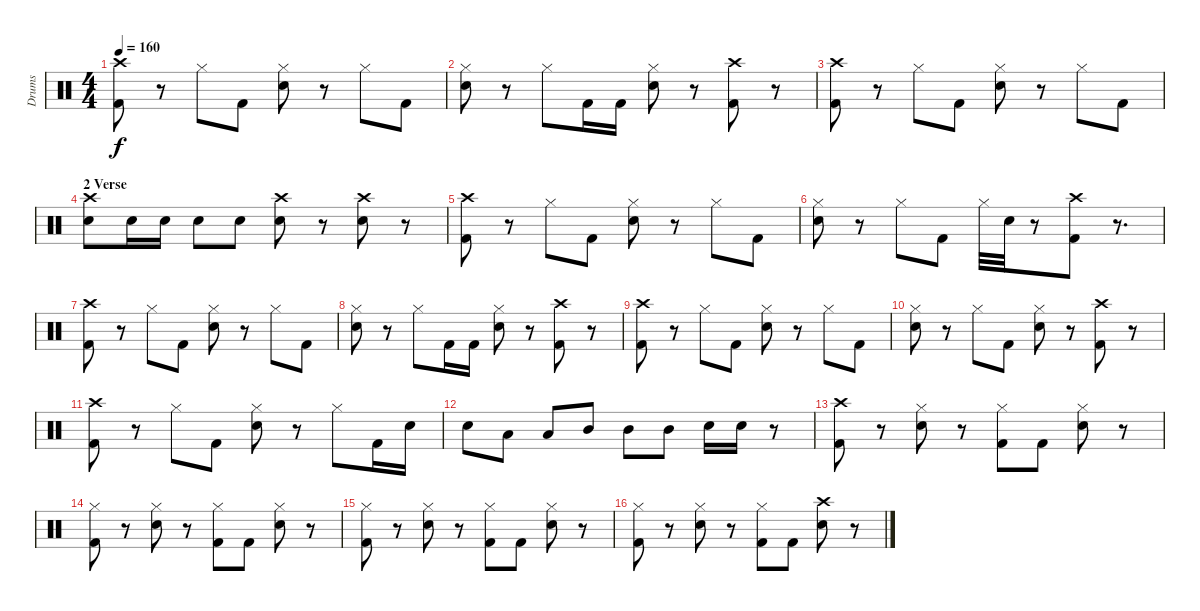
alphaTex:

\track ("Drums" "Drums") {instrument percussion}
\staff {score}
\articulation defaults
\ts (4 4)
\tempo 160
\clef neutral
\ks c
("Kick (hit) 2" "Crash high (hit)").8{dy f} r.8 "Hi-Hat (closed)".8 "Kick (hit) 2".8 ("Snare (hit) 2" "Hi-Hat (closed)").8 r.8 "Hi-Hat (closed)".8 "Kick (hit) 2".8 |
("Snare (hit) 2" "Hi-Hat (closed)").8 r.8 "Hi-Hat (closed)".8 "Kick (hit) 2".16 "Kick (hit) 2".16 ("Snare (hit) 2" "Hi-Hat (closed)").8 r.8 ("Crash high (hit)" "Kick (hit) 2").8 r.8 |
("Kick (hit) 2" "Crash high (hit)").8 r.8 "Hi-Hat (closed)".8 "Kick (hit) 2".8 ("Snare (hit) 2" "Hi-Hat (closed)").8 r.8 "Hi-Hat (closed)".8 "Kick (hit) 2".8 |
\section ("" "2 Verse")
("Snare (hit) 2" "Crash high (hit)").8 "Snare (hit) 2".16 "Snare (hit) 2".16 "Snare (hit) 2".8 "Snare (hit) 2".8 ("Crash high (hit)" "Snare (hit) 2").8 r.8 ("Crash high (hit)" "Snare (hit) 2").8 r.8 |
("Kick (hit) 2" "Crash high (hit)").8 r.8 "Hi-Hat (closed)".8 "Kick (hit) 2".8 ("Snare (hit) 2" "Hi-Hat (closed)").8 r.8 "Hi-Hat (closed)".8 "Kick (hit) 2".8 |
("Hi-Hat (closed)" "Snare (hit) 2").8 r.8 "Hi-Hat (closed)".8 "Kick (hit) 2".8 "Hi-Hat (closed)".32 "Snare (hit) 2".32 r.8 ("Crash high (hit)" "Kick (hit) 2").8 r.8{d} |
("Kick (hit) 2" "Crash high (hit)").8 r.8 "Hi-Hat (closed)".8 "Kick (hit) 2".8 ("Snare (hit) 2" "Hi-Hat (closed)").8 r.8 "Hi-Hat (closed)".8 "Kick (hit) 2".8 |
("Snare (hit) 2" "Hi-Hat (closed)").8 r.8 "Hi-Hat (closed)".8 "Kick (hit) 2".16 "Kick (hit) 2".16 ("Snare (hit) 2" "Hi-Hat (closed)").8 r.8 ("Crash high (hit)" "Kick (hit) 2").8 r.8 |
("Kick (hit) 2" "Crash high (hit)").8 r.8 "Hi-Hat (closed)".8 "Kick (hit) 2".8 ("Snare (hit) 2" "Hi-Hat (closed)").8 r.8 "Hi-Hat (closed)".8 "Kick (hit) 2".8 |
("Snare (hit) 2" "Hi-Hat (closed)").8 r.8 "Hi-Hat (closed)".8 "Kick (hit) 2".8 ("Snare (hit) 2" "Hi-Hat (closed)").8 r.8 ("Crash high (hit)" "Kick (hit) 2").8 r.8 |
("Kick (hit) 2" "Crash high (hit)").8 r.8 "Hi-Hat (closed)".8 "Kick (hit) 2".8 ("Snare (hit) 2" "Hi-Hat (closed)").8 r.8 "Hi-Hat (closed)".8 "Kick (hit) 2".16 "Snare (hit) 2".16 |
"Snare (hit) 2".8 "Low Tom (hit)".8 "Low Tom (hit)".8 "Mid Tom (hit)".8 "Mid Tom (hit)".8 "Mid Tom (hit)".8 "Snare (hit) 2".16 "Snare (hit) 2".16 r.8 |
("Kick (hit) 2" "Crash high (hit)").8 r.8 ("Hi-Hat (closed)" "Snare (hit) 2").8 r.8 ("Kick (hit) 2" "Hi-Hat (closed)").8 "Kick (hit) 2".8 ("Snare (hit) 2" "Hi-Hat (closed)").8 r.8 |
("Kick (hit) 2" "Hi-Hat (closed)").8 r.8 ("Snare (hit) 2" "Hi-Hat (closed)").8 r.8 ("Kick (hit) 2" "Hi-Hat (closed)").8 "Kick (hit) 2".8 ("Snare (hit) 2" "Hi-Hat (closed)").8 r.8 |
("Kick (hit) 2" "Hi-Hat (closed)").8 r.8 ("Snare (hit) 2" "Hi-Hat (closed)").8 r.8 ("Kick (hit) 2" "Hi-Hat (closed)").8 "Kick (hit) 2".8 ("Snare (hit) 2" "Hi-Hat (closed)").8 r.8 |
("Kick (hit) 2" "Hi-Hat (closed)").8 r.8 ("Snare (hit) 2" "Hi-Hat (closed)").8 r.8 ("Kick (hit) 2" "Hi-Hat (closed)").8 "Kick (hit) 2".8 ("Crash high (hit)" "Snare (hit) 2").8 r.8
